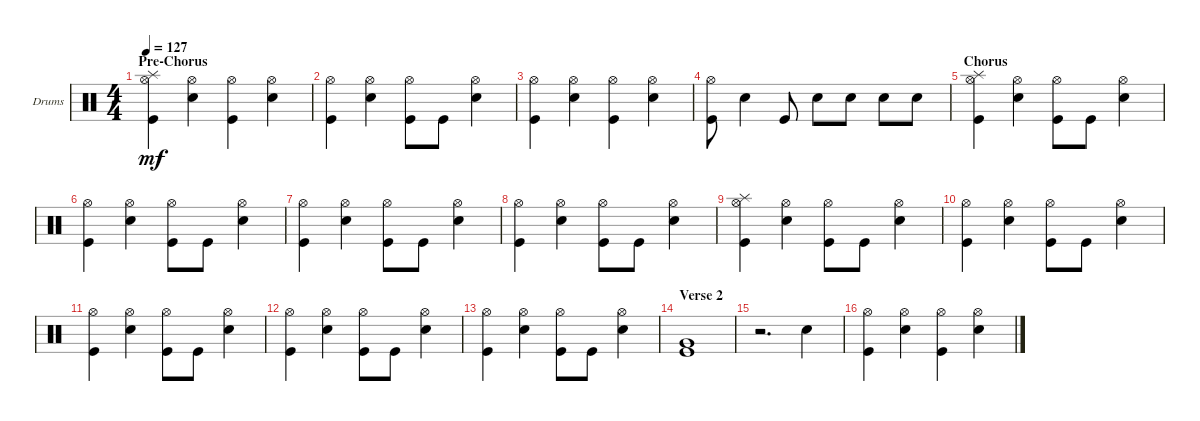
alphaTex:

\defaultSystemsLayout 4
\bracketExtendMode groupsimilarinstruments
\firstSystemTrackNameOrientation horizontal
\otherSystemsTrackNameOrientation horizontal
\track ("Drums 2" "Drums") {instrument percussion}
\staff {score}
\articulation defaults
\ts (4 4)
\section ("" "Pre-Chorus")
\tempo 127
\clef neutral
\ks c
("Kick (hit)" "Hi-Hat (open)" "Splash (hit)").4{dy mf} ("Hi-Hat (open)" "Snare (hit) 2").4 ("Hi-Hat (open)" "Kick (hit)").4 ("Hi-Hat (open)" "Snare (hit) 2").4 |
("Kick (hit)" "Hi-Hat (open)").4 ("Hi-Hat (open)" "Snare (hit) 2").4 ("Hi-Hat (open)" "Kick (hit)").8 "Kick (hit)".8 ("Hi-Hat (open)" "Snare (hit) 2").4 |
("Kick (hit)" "Hi-Hat (open)").4 ("Hi-Hat (open)" "Snare (hit) 2").4 ("Hi-Hat (open)" "Kick (hit)").4 ("Hi-Hat (open)" "Snare (hit) 2").4 |
("Kick (hit)" "Hi-Hat (open)").8 "Snare (hit) 2".4 "Kick (hit)".8 "Snare (hit) 2".8 "Snare (hit) 2".8 "Snare (hit) 2".8 "Snare (hit) 2".8 |
\section ("" "Chorus")
("Kick (hit)" "Hi-Hat (open)" "Splash (hit)").4 ("Hi-Hat (open)" "Snare (hit) 2").4 ("Hi-Hat (open)" "Kick (hit)").8 "Kick (hit)".8 ("Hi-Hat (open)" "Snare (hit) 2").4 |
("Kick (hit)" "Hi-Hat (open)").4 ("Hi-Hat (open)" "Snare (hit) 2").4 ("Hi-Hat (open)" "Kick (hit)").8 "Kick (hit)".8 ("Hi-Hat (open)" "Snare (hit) 2").4 |
("Kick (hit)" "Hi-Hat (open)").4 ("Hi-Hat (open)" "Snare (hit) 2").4 ("Hi-Hat (open)" "Kick (hit)").8 "Kick (hit)".8 ("Hi-Hat (open)" "Snare (hit) 2").4 |
("Kick (hit)" "Hi-Hat (open)").4 ("Hi-Hat (open)" "Snare (hit) 2").4 ("Hi-Hat (open)" "Kick (hit)").8 "Kick (hit)".8 ("Hi-Hat (open)" "Snare (hit) 2").4 |
("Kick (hit)" "Hi-Hat (open)" "Splash (hit)").4 ("Hi-Hat (open)" "Snare (hit) 2").4 ("Hi-Hat (open)" "Kick (hit)").8 "Kick (hit)".8 ("Hi-Hat (open)" "Snare (hit) 2").4 |
("Kick (hit)" "Hi-Hat (open)").4 ("Hi-Hat (open)" "Snare (hit) 2").4 ("Hi-Hat (open)" "Kick (hit)").8 "Kick (hit)".8 ("Hi-Hat (open)" "Snare (hit) 2").4 |
("Kick (hit)" "Hi-Hat (open)").4 ("Hi-Hat (open)" "Snare (hit) 2").4 ("Hi-Hat (open)" "Kick (hit)").8 "Kick (hit)".8 ("Hi-Hat (open)" "Snare (hit) 2").4 |
("Kick (hit)" "Hi-Hat (open)").4 ("Hi-Hat (open)" "Snare (hit) 2").4 ("Hi-Hat (open)" "Kick (hit)").8 "Kick (hit)".8 ("Hi-Hat (open)" "Snare (hit) 2").4 |
("Kick (hit)" "Hi-Hat (open)").4 ("Hi-Hat (open)" "Snare (hit) 2").4 ("Hi-Hat (open)" "Kick (hit)").8 "Kick (hit)".8 ("Hi-Hat (open)" "Snare (hit) 2").4 |
\section ("" "Verse 2")
("Very Low Tom (hit)" "Kick (hit)").1 |
r.2{d} "Snare (hit) 2".4 |
("Kick (hit)" "Hi-Hat (open)").4 ("Hi-Hat (open)" "Snare (hit) 2").4 ("Hi-Hat (open)" "Kick (hit)").4 ("Hi-Hat (open)" "Snare (hit) 2").4
